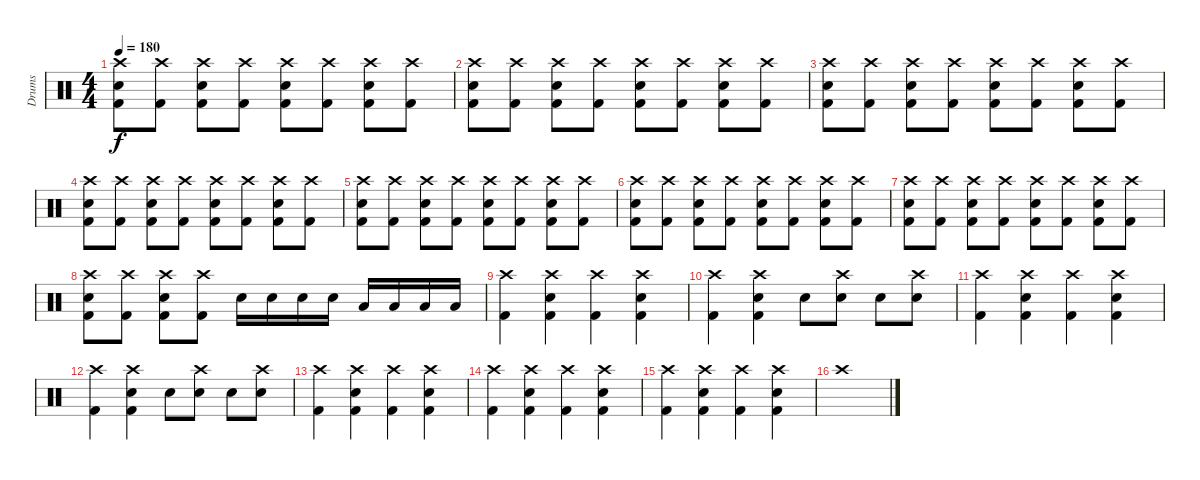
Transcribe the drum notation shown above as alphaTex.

\track ("Drums" "Drums") {instrument percussion}
\staff {score}
\articulation defaults
\ts (4 4)
\tempo 180
\clef neutral
\ks c
("Crash high (hit)" "Snare (hit) 2" "Kick (hit) 2").8{dy f} ("Crash high (hit)" "Kick (hit) 2").8 ("Crash high (hit)" "Snare (hit) 2" "Kick (hit) 2").8 ("Crash high (hit)" "Kick (hit) 2").8 ("Crash high (hit)" "Snare (hit) 2" "Kick (hit) 2").8 ("Crash high (hit)" "Kick (hit) 2").8 ("Crash high (hit)" "Snare (hit) 2" "Kick (hit) 2").8 ("Crash high (hit)" "Kick (hit) 2").8 |
("Crash high (hit)" "Snare (hit) 2" "Kick (hit) 2").8 ("Crash high (hit)" "Kick (hit) 2").8 ("Crash high (hit)" "Snare (hit) 2" "Kick (hit) 2").8 ("Crash high (hit)" "Kick (hit) 2").8 ("Crash high (hit)" "Snare (hit) 2" "Kick (hit) 2").8 ("Crash high (hit)" "Kick (hit) 2").8 ("Crash high (hit)" "Snare (hit) 2" "Kick (hit) 2").8 ("Crash high (hit)" "Kick (hit) 2").8 |
("Crash high (hit)" "Snare (hit) 2" "Kick (hit) 2").8 ("Crash high (hit)" "Kick (hit) 2").8 ("Crash high (hit)" "Snare (hit) 2" "Kick (hit) 2").8 ("Crash high (hit)" "Kick (hit) 2").8 ("Crash high (hit)" "Snare (hit) 2" "Kick (hit) 2").8 ("Crash high (hit)" "Kick (hit) 2").8 ("Crash high (hit)" "Snare (hit) 2" "Kick (hit) 2").8 ("Crash high (hit)" "Kick (hit) 2").8 |
("Crash high (hit)" "Snare (hit) 2" "Kick (hit) 2").8 ("Crash high (hit)" "Kick (hit) 2").8 ("Crash high (hit)" "Snare (hit) 2" "Kick (hit) 2").8 ("Crash high (hit)" "Kick (hit) 2").8 ("Crash high (hit)" "Snare (hit) 2" "Kick (hit) 2").8 ("Crash high (hit)" "Kick (hit) 2").8 ("Crash high (hit)" "Snare (hit) 2" "Kick (hit) 2").8 ("Crash high (hit)" "Kick (hit) 2").8 |
("Crash high (hit)" "Snare (hit) 2" "Kick (hit) 2").8 ("Crash high (hit)" "Kick (hit) 2").8 ("Crash high (hit)" "Snare (hit) 2" "Kick (hit) 2").8 ("Crash high (hit)" "Kick (hit) 2").8 ("Crash high (hit)" "Snare (hit) 2" "Kick (hit) 2").8 ("Crash high (hit)" "Kick (hit) 2").8 ("Crash high (hit)" "Snare (hit) 2" "Kick (hit) 2").8 ("Crash high (hit)" "Kick (hit) 2").8 |
("Crash high (hit)" "Snare (hit) 2" "Kick (hit) 2").8 ("Crash high (hit)" "Kick (hit) 2").8 ("Crash high (hit)" "Snare (hit) 2" "Kick (hit) 2").8 ("Crash high (hit)" "Kick (hit) 2").8 ("Crash high (hit)" "Snare (hit) 2" "Kick (hit) 2").8 ("Crash high (hit)" "Kick (hit) 2").8 ("Crash high (hit)" "Snare (hit) 2" "Kick (hit) 2").8 ("Crash high (hit)" "Kick (hit) 2").8 |
("Crash high (hit)" "Snare (hit) 2" "Kick (hit) 2").8 ("Crash high (hit)" "Kick (hit) 2").8 ("Crash high (hit)" "Snare (hit) 2" "Kick (hit) 2").8 ("Crash high (hit)" "Kick (hit) 2").8 ("Crash high (hit)" "Snare (hit) 2" "Kick (hit) 2").8 ("Crash high (hit)" "Kick (hit) 2").8 ("Crash high (hit)" "Snare (hit) 2" "Kick (hit) 2").8 ("Crash high (hit)" "Kick (hit) 2").8 |
("Crash high (hit)" "Snare (hit) 2" "Kick (hit) 2").8 ("Crash high (hit)" "Kick (hit) 2").8 ("Crash high (hit)" "Snare (hit) 2" "Kick (hit) 2").8 ("Crash high (hit)" "Kick (hit) 2").8 "Snare (hit) 2".16 "Snare (hit) 2".16 "Snare (hit) 2".16 "Snare (hit) 2".16 "Low Floor Tom (hit)".16 "Low Floor Tom (hit)".16 "Low Floor Tom (hit)".16 "Low Floor Tom (hit)".16 |
("Crash high (hit)" "Kick (hit) 2").4 ("Crash high (hit)" "Snare (hit) 2" "Kick (hit) 2").4 ("Crash high (hit)" "Kick (hit) 2").4 ("Crash high (hit)" "Snare (hit) 2" "Kick (hit) 2").4 |
("Crash high (hit)" "Kick (hit) 2").4 ("Crash high (hit)" "Snare (hit) 2" "Kick (hit) 2").4 "Snare (hit) 2".8 ("Crash high (hit)" "Snare (hit) 2").8 "Snare (hit) 2".8 ("Crash high (hit)" "Snare (hit) 2").8 |
("Crash high (hit)" "Kick (hit) 2").4 ("Crash high (hit)" "Snare (hit) 2" "Kick (hit) 2").4 ("Crash high (hit)" "Kick (hit) 2").4 ("Crash high (hit)" "Snare (hit) 2" "Kick (hit) 2").4 |
("Crash high (hit)" "Kick (hit) 2").4 ("Crash high (hit)" "Snare (hit) 2" "Kick (hit) 2").4 "Snare (hit) 2".8 ("Crash high (hit)" "Snare (hit) 2").8 "Snare (hit) 2".8 ("Crash high (hit)" "Snare (hit) 2").8 |
("Crash high (hit)" "Kick (hit) 2").4 ("Crash high (hit)" "Snare (hit) 2" "Kick (hit) 2").4 ("Crash high (hit)" "Kick (hit) 2").4 ("Crash high (hit)" "Snare (hit) 2" "Kick (hit) 2").4 |
("Crash high (hit)" "Kick (hit) 2").4 ("Crash high (hit)" "Snare (hit) 2" "Kick (hit) 2").4 ("Crash high (hit)" "Kick (hit) 2").4 ("Crash high (hit)" "Snare (hit) 2" "Kick (hit) 2").4 |
("Crash high (hit)" "Kick (hit) 2").4 ("Crash high (hit)" "Snare (hit) 2" "Kick (hit) 2").4 ("Crash high (hit)" "Kick (hit) 2").4 ("Crash high (hit)" "Snare (hit) 2" "Kick (hit) 2").4 |
"Crash high (hit)".1
